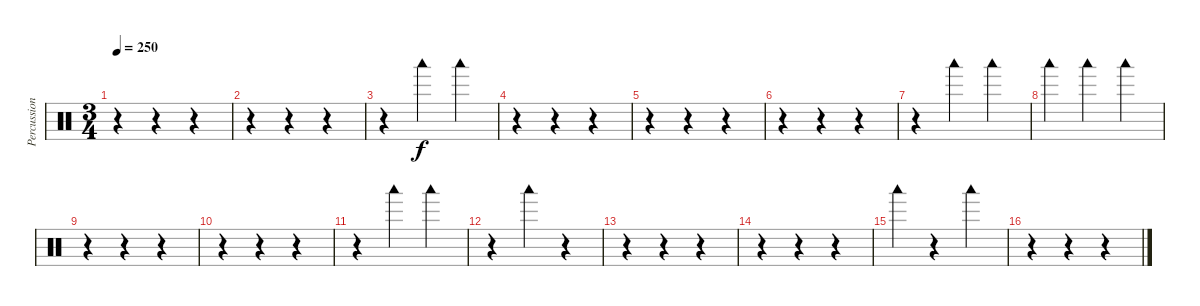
\track ("Percussions" "Percussion") {instrument percussion}
\staff {score}
\articulation defaults
\ts (3 4)
\tempo 250
\clef neutral
\ks c
r.4{dy f} r.4 r.4 |
r.4 r.4 r.4 |
r.4 "Woodblock low (hit)".4 "Woodblock low (hit)".4 |
r.4 r.4 r.4 |
r.4 r.4 r.4 |
r.4 r.4 r.4 |
r.4 "Woodblock low (hit)".4 "Woodblock low (hit)".4 |
"Woodblock low (hit)".4 "Woodblock low (hit)".4 "Woodblock low (hit)".4 |
r.4 r.4 r.4 |
r.4 r.4 r.4 |
r.4 "Woodblock low (hit)".4 "Woodblock low (hit)".4 |
r.4 "Woodblock low (hit)".4 r.4 |
r.4 r.4 r.4 |
r.4 r.4 r.4 |
"Woodblock low (hit)".4 r.4 "Woodblock low (hit)".4 |
r.4 r.4 r.4
